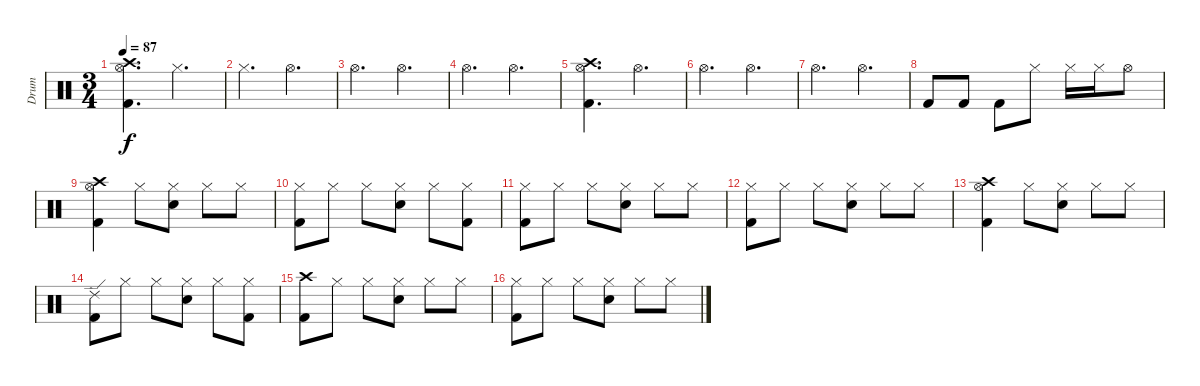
\track ("Drum" "Drum") {instrument percussion}
\staff {score}
\articulation defaults
\ts (3 4)
\tempo 87
\clef neutral
\ks c
("Crash high (hit)" "Hi-Hat (open)" "Kick (hit) 2").4{d dy f} "Hi-Hat (closed)".4{d} |
"Hi-Hat (closed)".4{d} "Hi-Hat (open)".4{d} |
"Hi-Hat (open)".4{d} "Hi-Hat (open)".4{d} |
"Hi-Hat (open)".4{d} "Hi-Hat (open)".4{d} |
("Crash high (hit)" "Hi-Hat (open)" "Kick (hit) 2").4{d} "Hi-Hat (open)".4{d} |
"Hi-Hat (open)".4{d} "Hi-Hat (open)".4{d} |
"Hi-Hat (open)".4{d} "Hi-Hat (open)".4{d} |
"Kick (hit) 2".8 "Kick (hit) 2".8 "Kick (hit) 2".8 "Hi-Hat (closed)".8 "Hi-Hat (closed)".16 "Hi-Hat (closed)".16 "Hi-Hat (open)".8 |
("Crash high (hit)" "Hi-Hat (open)" "Kick (hit) 2").4 "Hi-Hat (closed)".8 ("Hi-Hat (closed)" "Electric Snare (hit)").8 "Hi-Hat (closed)".8 "Hi-Hat (closed)".8 |
("Hi-Hat (closed)" "Kick (hit) 2").8 "Hi-Hat (closed)".8 "Hi-Hat (closed)".8 ("Hi-Hat (closed)" "Electric Snare (hit)").8 "Hi-Hat (closed)".8 ("Hi-Hat (closed)" "Kick (hit) 2").8 |
("Hi-Hat (closed)" "Kick (hit) 2").8 "Hi-Hat (closed)".8 "Hi-Hat (closed)".8 ("Hi-Hat (closed)" "Electric Snare (hit)").8 "Hi-Hat (closed)".8 "Hi-Hat (closed)".8 |
("Hi-Hat (closed)" "Kick (hit) 2").8 "Hi-Hat (closed)".8 "Hi-Hat (closed)".8 ("Hi-Hat (closed)" "Electric Snare (hit)").8 "Hi-Hat (closed)".8 "Hi-Hat (closed)".8 |
("Crash high (hit)" "Hi-Hat (open)" "Kick (hit) 2").4 "Hi-Hat (closed)".8 ("Hi-Hat (closed)" "Electric Snare (hit)").8 "Hi-Hat (closed)".8 "Hi-Hat (closed)".8 |
("Ride (edge) 2" "Kick (hit) 2").8 "Hi-Hat (closed)".8 "Hi-Hat (closed)".8 ("Hi-Hat (closed)" "Electric Snare (hit)").8 "Hi-Hat (closed)".8 ("Hi-Hat (closed)" "Kick (hit) 2").8 |
("Crash high (hit)" "Kick (hit) 2").8 "Hi-Hat (closed)".8 "Hi-Hat (closed)".8 ("Hi-Hat (closed)" "Electric Snare (hit)").8 "Hi-Hat (closed)".8 "Hi-Hat (closed)".8 |
("Hi-Hat (closed)" "Kick (hit) 2").8 "Hi-Hat (closed)".8 "Hi-Hat (closed)".8 ("Hi-Hat (closed)" "Electric Snare (hit)").8 "Hi-Hat (closed)".8 "Hi-Hat (closed)".8
